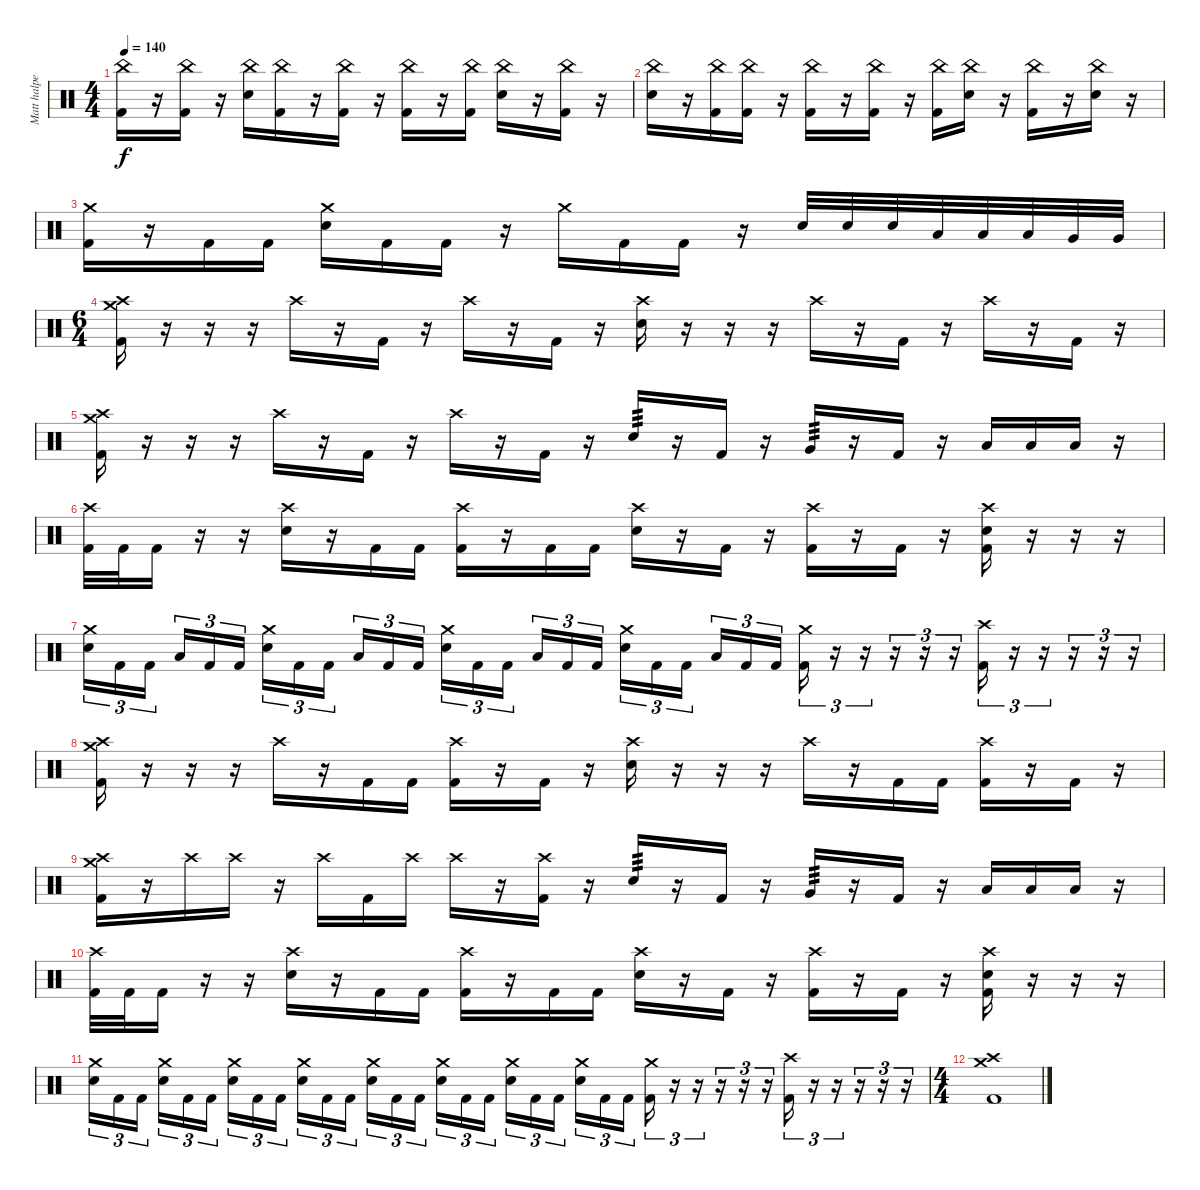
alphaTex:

\track ("Matt halpern" "Matt halpe") {instrument percussion}
\staff {score}
\articulation defaults
\ts (4 4)
\tempo 140
\clef neutral
\ks c
("China (hit)" "Kick (hit) 2").16{dy f} r.16 ("China (hit)" "Kick (hit) 2").16 r.16 ("China (hit)" "Electric Snare (hit)").16 ("China (hit)" "Kick (hit) 2").16 r.16 ("China (hit)" "Kick (hit) 2").16 r.16 ("China (hit)" "Kick (hit) 2").16 r.16 ("China (hit)" "Kick (hit) 2").16 ("China (hit)" "Electric Snare (hit)").16 r.16 ("China (hit)" "Kick (hit) 2").16 r.16 |
("China (hit)" "Electric Snare (hit)").16 r.16 ("China (hit)" "Kick (hit) 2").16 ("China (hit)" "Kick (hit) 2").16 r.16 ("China (hit)" "Kick (hit) 2").16 r.16 ("China (hit)" "Kick (hit) 2").16 r.16 ("China (hit)" "Kick (hit) 2").16 ("China (hit)" "Electric Snare (hit)").16 r.16 ("China (hit)" "Kick (hit) 2").16 r.16 ("China (hit)" "Electric Snare (hit)").16 r.16 |
("Crash medium (hit)" "Kick (hit) 2").16 r.16 "Kick (hit) 2".16 "Kick (hit) 2".16 ("Crash medium (hit)" "Electric Snare (hit)").16 "Kick (hit) 2".16 "Kick (hit) 2".16 r.16 "Crash medium (hit)".16 "Kick (hit) 2".16 "Kick (hit) 2".16 r.16 "Electric Snare (hit)".32 "Electric Snare (hit)".32 "Electric Snare (hit)".32 "Low Tom (hit)".32 "Low Tom (hit)".32 "Low Tom (hit)".32 "Very Low Tom (hit)".32 "Very Low Tom (hit)".32 |
\ts (6 4)
("Crash medium (hit)" "Crash high (hit)" "Kick (hit) 2").16 r.16 r.16 r.16 "Crash high (hit)".16 r.16 "Kick (hit) 2".16 r.16 "Crash high (hit)".16 r.16 "Kick (hit) 2".16 r.16 ("Crash high (hit)" "Electric Snare (hit)").16 r.16 r.16 r.16 "Crash high (hit)".16 r.16 "Kick (hit) 2".16 r.16 "Crash high (hit)".16 r.16 "Kick (hit) 2".16 r.16 |
("Crash high (hit)" "Crash medium (hit)" "Kick (hit) 2").16 r.16 r.16 r.16 "Crash high (hit)".16 r.16 "Kick (hit) 2".16 r.16 "Crash high (hit)".16 r.16 "Kick (hit) 2".16 r.16 "Snare (hit) 2".16{tp 3} r.16 "Kick (hit) 2".16 r.16 "Very Low Tom (hit)".16{tp 3} r.16 "Kick (hit) 2".16 r.16 "Low Floor Tom (hit)".16 "Low Floor Tom (hit)".16 "Low Floor Tom (hit)".16 r.16 |
("Crash high (hit)" "Kick (hit) 2").32 "Kick (hit) 2".32 "Kick (hit) 2".16 r.16 r.16 ("Crash high (hit)" "Electric Snare (hit)").16 r.16 "Kick (hit) 2".16 "Kick (hit) 2".16 ("Crash high (hit)" "Kick (hit) 2").16 r.16 "Kick (hit) 2".16 "Kick (hit) 2".16 ("Crash high (hit)" "Electric Snare (hit)").16 r.16 "Kick (hit) 2".16 r.16 ("Crash high (hit)" "Kick (hit) 2").16 r.16 "Kick (hit) 2".16 r.16 ("Crash high (hit)" "Electric Snare (hit)" "Kick (hit) 2").16 r.16 r.16 r.16 |
("Crash medium (hit)" "Electric Snare (hit)").16{tu (3 2)} "Kick (hit) 2".16{tu (3 2)} "Kick (hit) 2".16{tu (3 2)} "Low Floor Tom (hit)".16{tu (3 2)} "Kick (hit) 2".16{tu (3 2)} "Kick (hit) 2".16{tu (3 2)} ("Crash medium (hit)" "Electric Snare (hit)").16{tu (3 2)} "Kick (hit) 2".16{tu (3 2)} "Kick (hit) 2".16{tu (3 2)} "Low Floor Tom (hit)".16{tu (3 2)} "Kick (hit) 2".16{tu (3 2)} "Kick (hit) 2".16{tu (3 2)} ("Crash medium (hit)" "Electric Snare (hit)").16{tu (3 2)} "Kick (hit) 2".16{tu (3 2)} "Kick (hit) 2".16{tu (3 2)} "Low Floor Tom (hit)".16{tu (3 2)} "Kick (hit) 2".16{tu (3 2)} "Kick (hit) 2".16{tu (3 2)} ("Crash medium (hit)" "Electric Snare (hit)").16{tu (3 2)} "Kick (hit) 2".16{tu (3 2)} "Kick (hit) 2".16{tu (3 2)} "Low Floor Tom (hit)".16{tu (3 2)} "Kick (hit) 2".16{tu (3 2)} "Kick (hit) 2".16{tu (3 2)} ("Crash medium (hit)" "Kick (hit) 2").16{tu (3 2)} r.16{tu (3 2)} r.16{tu (3 2)} r.16{tu (3 2)} r.16{tu (3 2)} r.16{tu (3 2)} ("Crash high (hit)" "Kick (hit) 2").16{tu (3 2)} r.16{tu (3 2)} r.16{tu (3 2)} r.16{tu (3 2)} r.16{tu (3 2)} r.16{tu (3 2)} |
("Crash medium (hit)" "Crash high (hit)" "Kick (hit) 2").16 r.16 r.16 r.16 "Crash high (hit)".16 r.16 "Kick (hit) 2".16 "Kick (hit) 2".16 ("Crash high (hit)" "Kick (hit) 2").16 r.16 "Kick (hit) 2".16 r.16 ("Crash high (hit)" "Electric Snare (hit)").16 r.16 r.16 r.16 "Crash high (hit)".16 r.16 "Kick (hit) 2".16 "Kick (hit) 2".16 ("Crash high (hit)" "Kick (hit) 2").16 r.16 "Kick (hit) 2".16 r.16 |
("Crash high (hit)" "Crash medium (hit)" "Kick (hit) 2").16 r.16 "Crash high (hit)".16 "Crash high (hit)".16 r.16 "Crash high (hit)".16 "Kick (hit) 2".16 "Crash high (hit)".16 "Crash high (hit)".16 r.16 ("Crash high (hit)" "Kick (hit) 2").16 r.16 "Snare (hit) 2".16{tp 3} r.16 "Kick (hit) 2".16 r.16 "Very Low Tom (hit)".16{tp 3} r.16 "Kick (hit) 2".16 r.16 "Low Floor Tom (hit)".16 "Low Floor Tom (hit)".16 "Low Floor Tom (hit)".16 r.16 |
("Crash high (hit)" "Kick (hit) 2").32 "Kick (hit) 2".32 "Kick (hit) 2".16 r.16 r.16 ("Crash high (hit)" "Electric Snare (hit)").16 r.16 "Kick (hit) 2".16 "Kick (hit) 2".16 ("Crash high (hit)" "Kick (hit) 2").16 r.16 "Kick (hit) 2".16 "Kick (hit) 2".16 ("Crash high (hit)" "Electric Snare (hit)").16 r.16 "Kick (hit) 2".16 r.16 ("Crash high (hit)" "Kick (hit) 2").16 r.16 "Kick (hit) 2".16 r.16 ("Crash high (hit)" "Electric Snare (hit)" "Kick (hit) 2").16 r.16 r.16 r.16 |
("Crash medium (hit)" "Electric Snare (hit)").16{tu (3 2)} "Kick (hit) 2".16{tu (3 2)} "Kick (hit) 2".16{tu (3 2)} ("Crash medium (hit)" "Electric Snare (hit)").16{tu (3 2)} "Kick (hit) 2".16{tu (3 2)} "Kick (hit) 2".16{tu (3 2)} ("Crash medium (hit)" "Electric Snare (hit)").16{tu (3 2)} "Kick (hit) 2".16{tu (3 2)} "Kick (hit) 2".16{tu (3 2)} ("Crash medium (hit)" "Electric Snare (hit)").16{tu (3 2)} "Kick (hit) 2".16{tu (3 2)} "Kick (hit) 2".16{tu (3 2)} ("Crash medium (hit)" "Electric Snare (hit)").16{tu (3 2)} "Kick (hit) 2".16{tu (3 2)} "Kick (hit) 2".16{tu (3 2)} ("Crash medium (hit)" "Electric Snare (hit)").16{tu (3 2)} "Kick (hit) 2".16{tu (3 2)} "Kick (hit) 2".16{tu (3 2)} ("Crash medium (hit)" "Electric Snare (hit)").16{tu (3 2)} "Kick (hit) 2".16{tu (3 2)} "Kick (hit) 2".16{tu (3 2)} ("Crash medium (hit)" "Electric Snare (hit)").16{tu (3 2)} "Kick (hit) 2".16{tu (3 2)} "Kick (hit) 2".16{tu (3 2)} ("Crash medium (hit)" "Kick (hit) 2").16{tu (3 2)} r.16{tu (3 2)} r.16{tu (3 2)} r.16{tu (3 2)} r.16{tu (3 2)} r.16{tu (3 2)} ("Crash high (hit)" "Kick (hit) 2").16{tu (3 2)} r.16{tu (3 2)} r.16{tu (3 2)} r.16{tu (3 2)} r.16{tu (3 2)} r.16{tu (3 2)} |
\ts (4 4)
("Crash high (hit)" "Crash medium (hit)" "Kick (hit) 2").1
